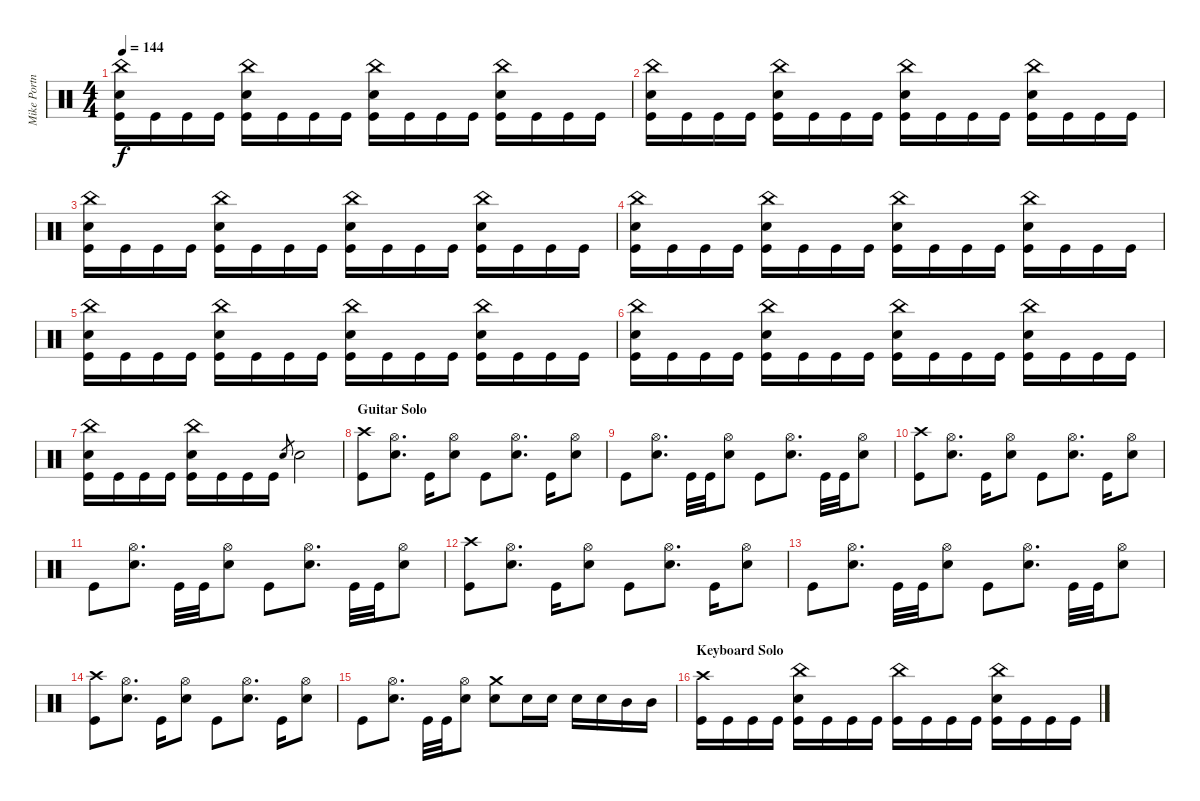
\track ("Mike Portnoy" "Mike Portn") {instrument percussion}
\staff {score}
\articulation defaults
\ts (4 4)
\tempo 144
\clef neutral
\ks c
("China (hit)" "Electric Snare (hit)" "Kick (hit)").16{dy f} "Kick (hit)".16 "Kick (hit)".16 "Kick (hit)".16 ("China (hit)" "Electric Snare (hit)" "Kick (hit)").16 "Kick (hit)".16 "Kick (hit)".16 "Kick (hit)".16 ("China (hit)" "Electric Snare (hit)" "Kick (hit)").16 "Kick (hit)".16 "Kick (hit)".16 "Kick (hit)".16 ("China (hit)" "Electric Snare (hit)" "Kick (hit)").16 "Kick (hit)".16 "Kick (hit)".16 "Kick (hit)".16 |
("China (hit)" "Electric Snare (hit)" "Kick (hit)").16 "Kick (hit)".16 "Kick (hit)".16 "Kick (hit)".16 ("China (hit)" "Electric Snare (hit)" "Kick (hit)").16 "Kick (hit)".16 "Kick (hit)".16 "Kick (hit)".16 ("China (hit)" "Electric Snare (hit)" "Kick (hit)").16 "Kick (hit)".16 "Kick (hit)".16 "Kick (hit)".16 ("China (hit)" "Electric Snare (hit)" "Kick (hit)").16 "Kick (hit)".16 "Kick (hit)".16 "Kick (hit)".16 |
("China (hit)" "Electric Snare (hit)" "Kick (hit)").16 "Kick (hit)".16 "Kick (hit)".16 "Kick (hit)".16 ("China (hit)" "Electric Snare (hit)" "Kick (hit)").16 "Kick (hit)".16 "Kick (hit)".16 "Kick (hit)".16 ("China (hit)" "Electric Snare (hit)" "Kick (hit)").16 "Kick (hit)".16 "Kick (hit)".16 "Kick (hit)".16 ("China (hit)" "Electric Snare (hit)" "Kick (hit)").16 "Kick (hit)".16 "Kick (hit)".16 "Kick (hit)".16 |
("China (hit)" "Electric Snare (hit)" "Kick (hit)").16 "Kick (hit)".16 "Kick (hit)".16 "Kick (hit)".16 ("China (hit)" "Electric Snare (hit)" "Kick (hit)").16 "Kick (hit)".16 "Kick (hit)".16 "Kick (hit)".16 ("China (hit)" "Electric Snare (hit)" "Kick (hit)").16 "Kick (hit)".16 "Kick (hit)".16 "Kick (hit)".16 ("China (hit)" "Electric Snare (hit)" "Kick (hit)").16 "Kick (hit)".16 "Kick (hit)".16 "Kick (hit)".16 |
("China (hit)" "Electric Snare (hit)" "Kick (hit)").16 "Kick (hit)".16 "Kick (hit)".16 "Kick (hit)".16 ("China (hit)" "Electric Snare (hit)" "Kick (hit)").16 "Kick (hit)".16 "Kick (hit)".16 "Kick (hit)".16 ("China (hit)" "Electric Snare (hit)" "Kick (hit)").16 "Kick (hit)".16 "Kick (hit)".16 "Kick (hit)".16 ("China (hit)" "Electric Snare (hit)" "Kick (hit)").16 "Kick (hit)".16 "Kick (hit)".16 "Kick (hit)".16 |
("China (hit)" "Electric Snare (hit)" "Kick (hit)").16 "Kick (hit)".16 "Kick (hit)".16 "Kick (hit)".16 ("China (hit)" "Electric Snare (hit)" "Kick (hit)").16 "Kick (hit)".16 "Kick (hit)".16 "Kick (hit)".16 ("China (hit)" "Electric Snare (hit)" "Kick (hit)").16 "Kick (hit)".16 "Kick (hit)".16 "Kick (hit)".16 ("China (hit)" "Electric Snare (hit)" "Kick (hit)").16 "Kick (hit)".16 "Kick (hit)".16 "Kick (hit)".16 |
("China (hit)" "Electric Snare (hit)" "Kick (hit)").16 "Kick (hit)".16 "Kick (hit)".16 "Kick (hit)".16 ("China (hit)" "Electric Snare (hit)" "Kick (hit)").16 "Kick (hit)".16 "Kick (hit)".16 "Kick (hit)".16 "Electric Snare (hit)".8{gr} "Electric Snare (hit)".2 |
\section ("" "Guitar Solo")
("Crash high (hit)" "Kick (hit)").8 ("Hi-Hat (open)" "Electric Snare (hit)").8{d} "Kick (hit)".16 ("Hi-Hat (open)" "Electric Snare (hit)").8 "Kick (hit)".8 ("Hi-Hat (open)" "Electric Snare (hit)").8{d} "Kick (hit)".16 ("Hi-Hat (open)" "Electric Snare (hit)").8 |
"Kick (hit)".8 ("Hi-Hat (open)" "Electric Snare (hit)").8{d} "Kick (hit)".32 "Kick (hit)".32 ("Hi-Hat (open)" "Electric Snare (hit)").8 "Kick (hit)".8 ("Hi-Hat (open)" "Electric Snare (hit)").8{d} "Kick (hit)".32 "Kick (hit)".32 ("Hi-Hat (open)" "Electric Snare (hit)").8 |
("Crash high (hit)" "Kick (hit)").8 ("Hi-Hat (open)" "Electric Snare (hit)").8{d} "Kick (hit)".16 ("Hi-Hat (open)" "Electric Snare (hit)").8 "Kick (hit)".8 ("Hi-Hat (open)" "Electric Snare (hit)").8{d} "Kick (hit)".16 ("Hi-Hat (open)" "Electric Snare (hit)").8 |
"Kick (hit)".8 ("Hi-Hat (open)" "Electric Snare (hit)").8{d} "Kick (hit)".32 "Kick (hit)".32 ("Hi-Hat (open)" "Electric Snare (hit)").8 "Kick (hit)".8 ("Hi-Hat (open)" "Electric Snare (hit)").8{d} "Kick (hit)".32 "Kick (hit)".32 ("Hi-Hat (open)" "Electric Snare (hit)").8 |
("Crash high (hit)" "Kick (hit)").8 ("Hi-Hat (open)" "Electric Snare (hit)").8{d} "Kick (hit)".16 ("Hi-Hat (open)" "Electric Snare (hit)").8 "Kick (hit)".8 ("Hi-Hat (open)" "Electric Snare (hit)").8{d} "Kick (hit)".16 ("Hi-Hat (open)" "Electric Snare (hit)").8 |
"Kick (hit)".8 ("Hi-Hat (open)" "Electric Snare (hit)").8{d} "Kick (hit)".32 "Kick (hit)".32 ("Hi-Hat (open)" "Electric Snare (hit)").8 "Kick (hit)".8 ("Hi-Hat (open)" "Electric Snare (hit)").8{d} "Kick (hit)".32 "Kick (hit)".32 ("Hi-Hat (open)" "Electric Snare (hit)").8 |
("Crash high (hit)" "Kick (hit)").8 ("Hi-Hat (open)" "Electric Snare (hit)").8{d} "Kick (hit)".16 ("Hi-Hat (open)" "Electric Snare (hit)").8 "Kick (hit)".8 ("Hi-Hat (open)" "Electric Snare (hit)").8{d} "Kick (hit)".16 ("Hi-Hat (open)" "Electric Snare (hit)").8 |
"Kick (hit)".8 ("Hi-Hat (open)" "Electric Snare (hit)").8{d} "Kick (hit)".32 "Kick (hit)".32 ("Hi-Hat (open)" "Electric Snare (hit)").8 ("Crash medium (hit)" "Electric Snare (hit)").8 "Electric Snare (hit)".16 "Electric Snare (hit)".16 "Electric Snare (hit)".16 "Electric Snare (hit)".16 "Mid Tom (hit)".16 "Mid Tom (hit)".16 |
\section ("" "Keyboard Solo")
("Crash high (hit)" "Kick (hit)").16 "Kick (hit)".16 "Kick (hit)".16 "Kick (hit)".16 ("China (hit)" "Electric Snare (hit)" "Kick (hit)").16 "Kick (hit)".16 "Kick (hit)".16 "Kick (hit)".16 ("China (hit)" "Kick (hit)").16 "Kick (hit)".16 "Kick (hit)".16 "Kick (hit)".16 ("China (hit)" "Electric Snare (hit)" "Kick (hit)").16 "Kick (hit)".16 "Kick (hit)".16 "Kick (hit)".16
